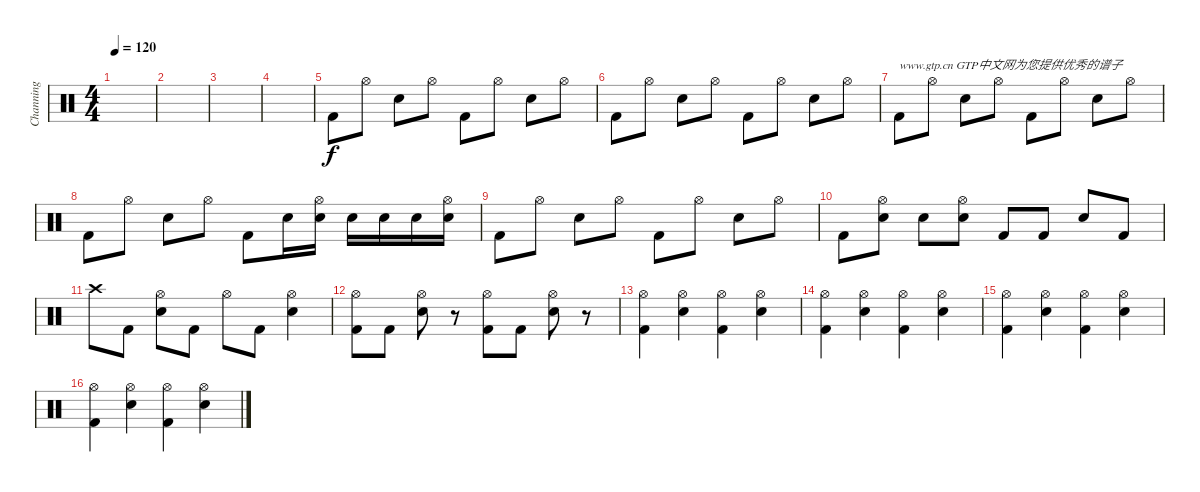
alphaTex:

\track ("Channing" "Channing") {instrument percussion}
\staff {score}
\articulation defaults
\ts (4 4)
\tempo 120
\clef neutral
\ks c
|
|
|
|
"Kick (hit) 2".8 "Hi-Hat (open)".8 "Snare (hit) 2".8 "Hi-Hat (open)".8 "Kick (hit) 2".8 "Hi-Hat (open)".8 "Snare (hit) 2".8 "Hi-Hat (open)".8 |
"Kick (hit) 2".8 "Hi-Hat (open)".8 "Snare (hit) 2".8 "Hi-Hat (open)".8 "Kick (hit) 2".8 "Hi-Hat (open)".8 "Snare (hit) 2".8 "Hi-Hat (open)".8 |
"Kick (hit) 2".8{txt "www.gtp.cn GTP中文网为您提供优秀的谱子"} "Hi-Hat (open)".8 "Snare (hit) 2".8 "Hi-Hat (open)".8 "Kick (hit) 2".8 "Hi-Hat (open)".8 "Snare (hit) 2".8 "Hi-Hat (open)".8 |
"Kick (hit) 2".8 "Hi-Hat (open)".8 "Snare (hit) 2".8 "Hi-Hat (open)".8 "Kick (hit) 2".8 "Snare (hit) 2".16 ("Hi-Hat (open)" "Snare (hit) 2").16 "Snare (hit) 2".16 "Snare (hit) 2".16 "Snare (hit) 2".16 ("Hi-Hat (open)" "Snare (hit) 2").16 |
"Kick (hit) 2".8 "Hi-Hat (open)".8 "Snare (hit) 2".8 "Hi-Hat (open)".8 "Kick (hit) 2".8 "Hi-Hat (open)".8 "Snare (hit) 2".8 "Hi-Hat (open)".8 |
"Kick (hit) 2".8 ("Hi-Hat (open)" "Snare (hit) 2").8 "Snare (hit) 2".8 ("Hi-Hat (open)" "Snare (hit) 2").8 "Kick (hit) 2".8 "Kick (hit) 2".8 "Snare (hit) 2".8 "Kick (hit) 2".8 |
"Crash high (hit)".8 "Kick (hit) 2".8 ("Hi-Hat (open)" "Snare (hit) 2").8 "Kick (hit) 2".8 "Hi-Hat (open)".8 "Kick (hit) 2".8 ("Hi-Hat (open)" "Snare (hit) 2").4 |
("Hi-Hat (open)" "Kick (hit) 2").8 "Kick (hit) 2".8 ("Hi-Hat (open)" "Snare (hit) 2").8 r.8 ("Hi-Hat (open)" "Kick (hit) 2").8 "Kick (hit) 2".8 ("Hi-Hat (open)" "Snare (hit) 2").8 r.8 |
("Hi-Hat (open)" "Kick (hit) 2").4 ("Hi-Hat (open)" "Snare (hit) 2").4 ("Hi-Hat (open)" "Kick (hit) 2").4 ("Hi-Hat (open)" "Snare (hit) 2").4 |
("Hi-Hat (open)" "Kick (hit) 2").4 ("Hi-Hat (open)" "Snare (hit) 2").4 ("Hi-Hat (open)" "Kick (hit) 2").4 ("Hi-Hat (open)" "Snare (hit) 2").4 |
("Hi-Hat (open)" "Kick (hit) 2").4 ("Hi-Hat (open)" "Snare (hit) 2").4 ("Hi-Hat (open)" "Kick (hit) 2").4 ("Hi-Hat (open)" "Snare (hit) 2").4 |
("Hi-Hat (open)" "Kick (hit) 2").4 ("Hi-Hat (open)" "Snare (hit) 2").4 ("Hi-Hat (open)" "Kick (hit) 2").4 ("Hi-Hat (open)" "Snare (hit) 2").4
